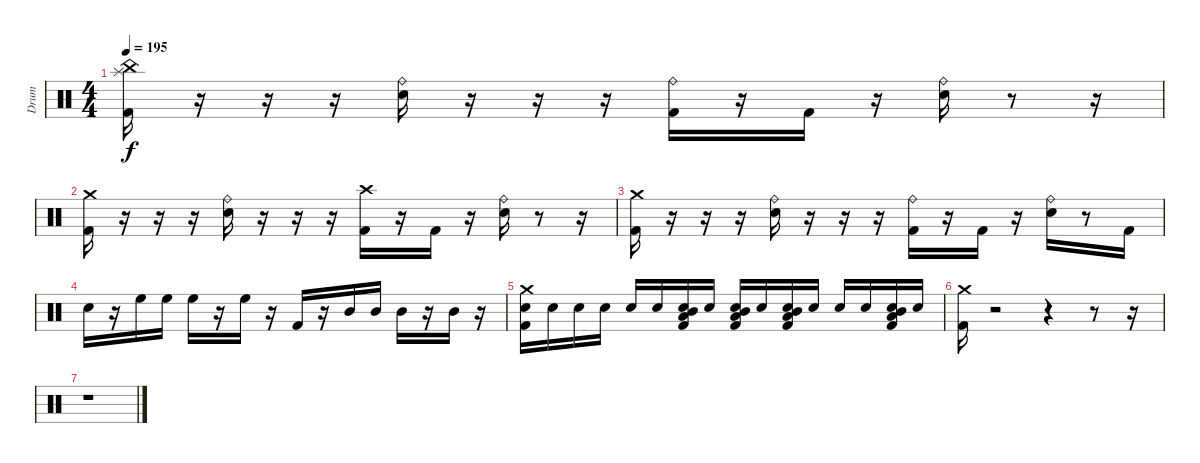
\track ("Drum" "Drum") {instrument percussion}
\staff {score}
\articulation defaults
\ts (4 4)
\tempo 195
\clef neutral
\ks c
("China (hit)" "Splash (hit)" "Kick (hit) 2").16{dy f} r.16 r.16 r.16 ("Ride (bell)" "Snare (hit) 2").16 r.16 r.16 r.16 ("Ride (bell)" "Kick (hit) 2").16 r.16 "Kick (hit) 2".16 r.16 ("Ride (bell)" "Snare (hit) 2").16 r.8 r.16 |
("Crash medium (hit)" "Kick (hit) 2").16 r.16 r.16 r.16 ("Ride (bell)" "Snare (hit) 2").16 r.16 r.16 r.16 ("Crash high (hit)" "Kick (hit) 2").16 r.16 "Kick (hit) 2".16 r.16 ("Ride (bell)" "Snare (hit) 2").16 r.8 r.16 |
("Crash medium (hit)" "Kick (hit) 2").16 r.16 r.16 r.16 ("Ride (bell)" "Snare (hit) 2").16 r.16 r.16 r.16 ("Ride (bell)" "Kick (hit) 2").16 r.16 "Kick (hit) 2".16 r.16 ("Ride (bell)" "Snare (hit) 2").16 r.8 "Kick (hit) 2".16 |
"Snare (hit) 2".16 r.16 "High Floor Tom (hit)".16 "High Floor Tom (hit)".16 "High Floor Tom (hit)".16 r.16 "High Floor Tom (hit)".16 r.16 "Kick (hit) 2".16 r.16 "Mid Tom (hit)".16 "Mid Tom (hit)".16 "Mid Tom (hit)".16 r.16 "Mid Tom (hit)".16 r.16 |
("Crash medium (hit)" "Snare (hit)" "Kick (hit) 2").16 "Snare (hit)".16 "Snare (hit)".16 "Snare (hit)".16 "Snare (hit)".16 "Snare (hit)".16 ("Mid Tom (hit)" "Low Tom (hit)" "Snare (hit)" "Kick (hit) 2").16 "Snare (hit)".16 ("Mid Tom (hit)" "Low Tom (hit)" "Snare (hit)" "Kick (hit) 2").16 "Snare (hit)".16 ("Mid Tom (hit)" "Low Tom (hit)" "Snare (hit)" "Kick (hit) 2").16 "Snare (hit)".16 "Snare (hit)".16 "Snare (hit)".16 ("Mid Tom (hit)" "Low Tom (hit)" "Snare (hit)" "Kick (hit) 2").16 "Snare (hit)".16 |
("Crash medium (hit)" "Kick (hit) 2").16 r.2 r.4 r.8 r.16 |
r.1
